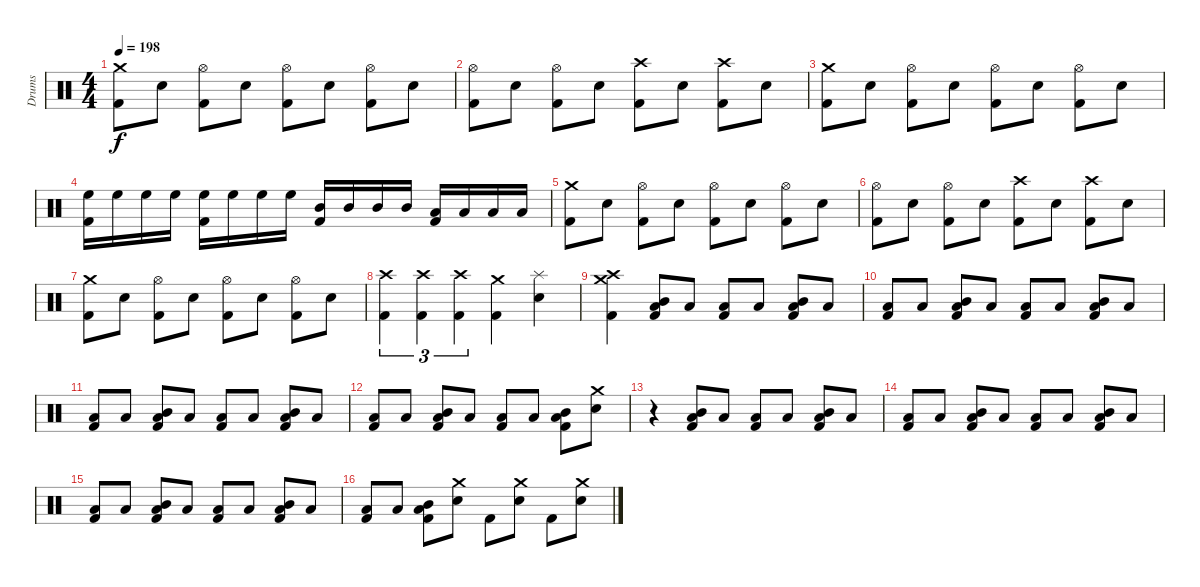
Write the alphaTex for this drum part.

\track ("Drums" "Drums") {instrument percussion}
\staff {score}
\articulation defaults
\ts (4 4)
\tempo 198
\clef neutral
\ks c
("Crash medium (hit)" "Kick (hit) 2").8{dy f} "Electric Snare (hit)".8 ("Hi-Hat (open)" "Kick (hit) 2").8 "Electric Snare (hit)".8 ("Hi-Hat (open)" "Kick (hit) 2").8 "Electric Snare (hit)".8 ("Hi-Hat (open)" "Kick (hit) 2").8 "Electric Snare (hit)".8 |
("Hi-Hat (open)" "Kick (hit) 2").8 "Electric Snare (hit)".8 ("Hi-Hat (open)" "Kick (hit) 2").8 "Electric Snare (hit)".8 ("Crash high (hit)" "Kick (hit) 2").8 "Electric Snare (hit)".8 ("Crash high (hit)" "Kick (hit) 2").8 "Electric Snare (hit)".8 |
("Crash medium (hit)" "Kick (hit) 2").8 "Electric Snare (hit)".8 ("Hi-Hat (open)" "Kick (hit) 2").8 "Electric Snare (hit)".8 ("Hi-Hat (open)" "Kick (hit) 2").8 "Electric Snare (hit)".8 ("Hi-Hat (open)" "Kick (hit) 2").8 "Electric Snare (hit)".8 |
("High Floor Tom (hit)" "Kick (hit) 2").16 "High Floor Tom (hit)".16 "High Floor Tom (hit)".16 "High Floor Tom (hit)".16 ("High Floor Tom (hit)" "Kick (hit) 2").16 "High Floor Tom (hit)".16 "High Floor Tom (hit)".16 "High Floor Tom (hit)".16 ("Mid Tom (hit)" "Kick (hit) 2").16 "Mid Tom (hit)".16 "Mid Tom (hit)".16 "Mid Tom (hit)".16 ("Low Tom (hit)" "Kick (hit) 2").16 "Low Tom (hit)".16 "Low Tom (hit)".16 "Low Tom (hit)".16 |
("Crash medium (hit)" "Kick (hit) 2").8 "Electric Snare (hit)".8 ("Hi-Hat (open)" "Kick (hit) 2").8 "Electric Snare (hit)".8 ("Hi-Hat (open)" "Kick (hit) 2").8 "Electric Snare (hit)".8 ("Hi-Hat (open)" "Kick (hit) 2").8 "Electric Snare (hit)".8 |
("Hi-Hat (open)" "Kick (hit) 2").8 "Electric Snare (hit)".8 ("Hi-Hat (open)" "Kick (hit) 2").8 "Electric Snare (hit)".8 ("Crash high (hit)" "Kick (hit) 2").8 "Electric Snare (hit)".8 ("Crash high (hit)" "Kick (hit) 2").8 "Electric Snare (hit)".8 |
("Crash medium (hit)" "Kick (hit) 2").8 "Electric Snare (hit)".8 ("Hi-Hat (open)" "Kick (hit) 2").8 "Electric Snare (hit)".8 ("Hi-Hat (open)" "Kick (hit) 2").8 "Electric Snare (hit)".8 ("Hi-Hat (open)" "Kick (hit) 2").8 "Electric Snare (hit)".8 |
("Crash high (hit)" "Kick (hit) 2").4{tu (3 2)} ("Crash high (hit)" "Kick (hit) 2").4{tu (3 2)} ("Crash high (hit)" "Kick (hit) 2").4{tu (3 2)} ("Crash medium (hit)" "Kick (hit) 2").4 ("Splash (hit)" "Electric Snare (hit)").4 |
("Crash medium (hit)" "Crash high (hit)" "Kick (hit) 2").4 ("Low Floor Tom (hit)" "Mid Tom (hit)" "Kick (hit) 2").8 "Low Floor Tom (hit)".8 ("Low Floor Tom (hit)" "Kick (hit) 2").8 "Low Floor Tom (hit)".8 ("Low Floor Tom (hit)" "Mid Tom (hit)" "Kick (hit) 2").8 "Low Floor Tom (hit)".8 |
("Low Floor Tom (hit)" "Kick (hit) 2").8 "Low Floor Tom (hit)".8 ("Low Floor Tom (hit)" "Mid Tom (hit)" "Kick (hit) 2").8 "Low Floor Tom (hit)".8 ("Low Floor Tom (hit)" "Kick (hit) 2").8 "Low Floor Tom (hit)".8 ("Low Floor Tom (hit)" "Mid Tom (hit)" "Kick (hit) 2").8 "Low Floor Tom (hit)".8 |
("Low Floor Tom (hit)" "Kick (hit) 2").8 "Low Floor Tom (hit)".8 ("Low Floor Tom (hit)" "Mid Tom (hit)" "Kick (hit) 2").8 "Low Floor Tom (hit)".8 ("Low Floor Tom (hit)" "Kick (hit) 2").8 "Low Floor Tom (hit)".8 ("Low Floor Tom (hit)" "Mid Tom (hit)" "Kick (hit) 2").8 "Low Floor Tom (hit)".8 |
("Low Floor Tom (hit)" "Kick (hit) 2").8 "Low Floor Tom (hit)".8 ("Low Floor Tom (hit)" "Mid Tom (hit)" "Kick (hit) 2").8 "Low Floor Tom (hit)".8 ("Low Floor Tom (hit)" "Kick (hit) 2").8 "Low Floor Tom (hit)".8 ("Low Floor Tom (hit)" "Mid Tom (hit)" "Kick (hit) 2").8 ("Crash medium (hit)" "Electric Snare (hit)").8 |
r.4 ("Low Floor Tom (hit)" "Mid Tom (hit)" "Kick (hit) 2").8 "Low Floor Tom (hit)".8 ("Low Floor Tom (hit)" "Kick (hit) 2").8 "Low Floor Tom (hit)".8 ("Low Floor Tom (hit)" "Mid Tom (hit)" "Kick (hit) 2").8 "Low Floor Tom (hit)".8 |
("Low Floor Tom (hit)" "Kick (hit) 2").8 "Low Floor Tom (hit)".8 ("Low Floor Tom (hit)" "Mid Tom (hit)" "Kick (hit) 2").8 "Low Floor Tom (hit)".8 ("Low Floor Tom (hit)" "Kick (hit) 2").8 "Low Floor Tom (hit)".8 ("Low Floor Tom (hit)" "Mid Tom (hit)" "Kick (hit) 2").8 "Low Floor Tom (hit)".8 |
("Low Floor Tom (hit)" "Kick (hit) 2").8 "Low Floor Tom (hit)".8 ("Low Floor Tom (hit)" "Mid Tom (hit)" "Kick (hit) 2").8 "Low Floor Tom (hit)".8 ("Low Floor Tom (hit)" "Kick (hit) 2").8 "Low Floor Tom (hit)".8 ("Low Floor Tom (hit)" "Mid Tom (hit)" "Kick (hit) 2").8 "Low Floor Tom (hit)".8 |
("Low Floor Tom (hit)" "Kick (hit) 2").8 "Low Floor Tom (hit)".8 ("Low Floor Tom (hit)" "Mid Tom (hit)" "Kick (hit) 2").8 ("Crash medium (hit)" "Electric Snare (hit)").8 "Kick (hit) 2".8 ("Crash medium (hit)" "Electric Snare (hit)").8 "Kick (hit) 2".8 ("Crash medium (hit)" "Electric Snare (hit)").8
